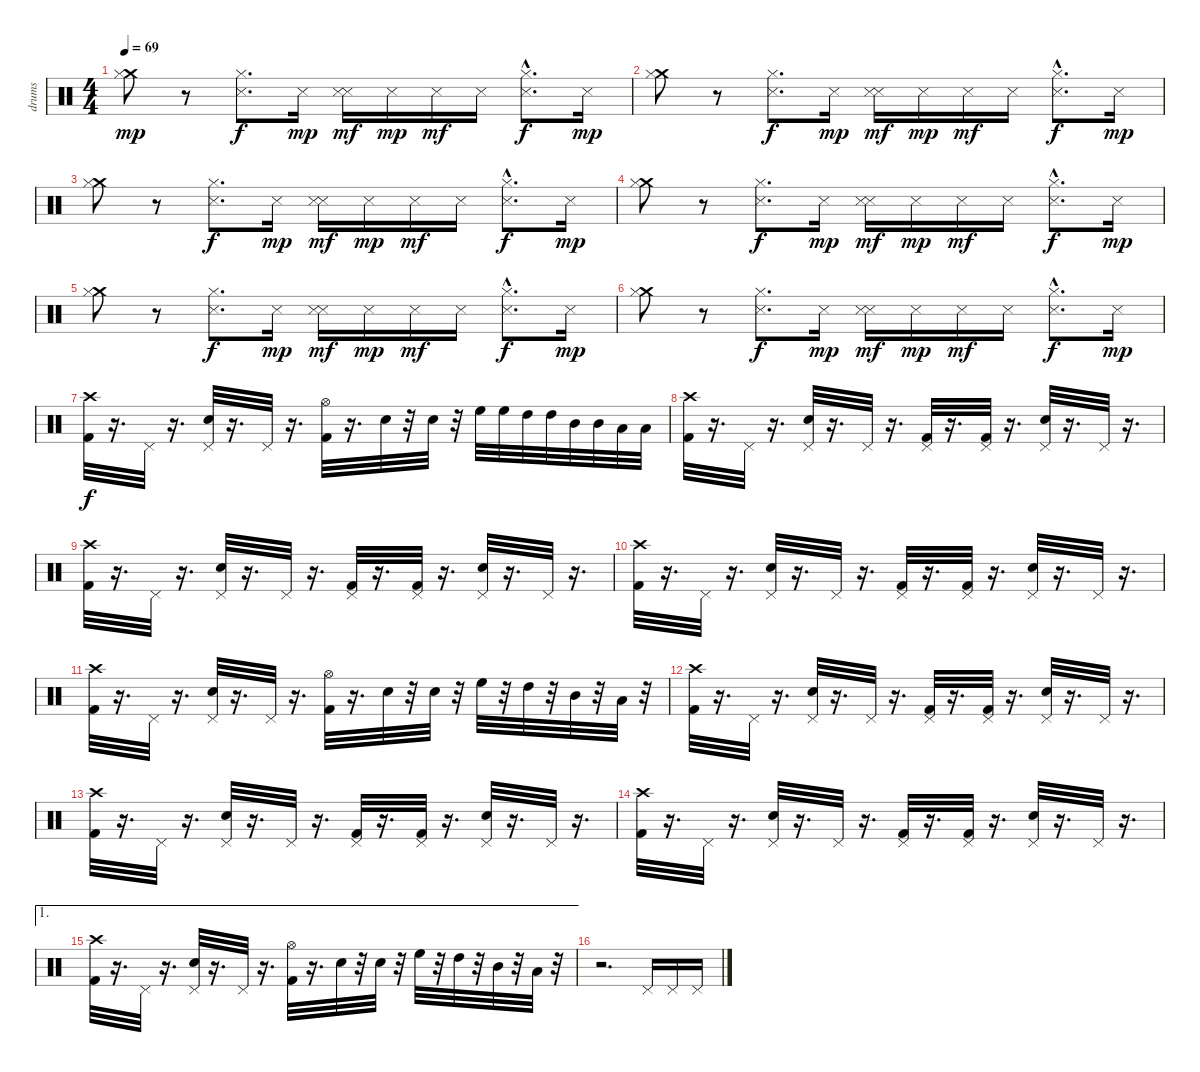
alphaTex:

\track ("drums" "drums") {instrument percussion}
\staff {score}
\articulation defaults
\ts (4 4)
\tempo 69
\clef neutral
\ks c
("Crash medium (hit)" "Hi-Hat (closed)").8{dy mp} r.8 ("Snare (side stick) 3" "Hi-Hat (closed)").8{d dy f} "Snare (side stick) 3".16{dy mp} ("Snare (side stick) 3" "Snare (side stick) 3").16{dy mf} "Snare (side stick) 3".16{dy mp} "Snare (side stick) 3".16{dy mf} "Snare (side stick) 3".16 ("Hi-Hat (closed)"{hac} "Snare (side stick) 3"{hac}).8{d dy f} "Snare (side stick) 3".16{dy mp} |
("Crash medium (hit)" "Hi-Hat (closed)").8 r.8 ("Snare (side stick) 3" "Hi-Hat (closed)").8{d dy f} "Snare (side stick) 3".16{dy mp} ("Snare (side stick) 3" "Snare (side stick) 3").16{dy mf} "Snare (side stick) 3".16{dy mp} "Snare (side stick) 3".16{dy mf} "Snare (side stick) 3".16 ("Hi-Hat (closed)"{hac} "Snare (side stick) 3"{hac}).8{d dy f} "Snare (side stick) 3".16{dy mp} |
("Crash medium (hit)" "Hi-Hat (closed)").8 r.8 ("Snare (side stick) 3" "Hi-Hat (closed)").8{d dy f} "Snare (side stick) 3".16{dy mp} ("Snare (side stick) 3" "Snare (side stick) 3").16{dy mf} "Snare (side stick) 3".16{dy mp} "Snare (side stick) 3".16{dy mf} "Snare (side stick) 3".16 ("Hi-Hat (closed)"{hac} "Snare (side stick) 3"{hac}).8{d dy f} "Snare (side stick) 3".16{dy mp} |
("Crash medium (hit)" "Hi-Hat (closed)").8 r.8 ("Snare (side stick) 3" "Hi-Hat (closed)").8{d dy f} "Snare (side stick) 3".16{dy mp} ("Snare (side stick) 3" "Snare (side stick) 3").16{dy mf} "Snare (side stick) 3".16{dy mp} "Snare (side stick) 3".16{dy mf} "Snare (side stick) 3".16 ("Hi-Hat (closed)"{hac} "Snare (side stick) 3"{hac}).8{d dy f} "Snare (side stick) 3".16{dy mp} |
("Crash medium (hit)" "Hi-Hat (closed)").8 r.8 ("Snare (side stick) 3" "Hi-Hat (closed)").8{d dy f} "Snare (side stick) 3".16{dy mp} ("Snare (side stick) 3" "Snare (side stick) 3").16{dy mf} "Snare (side stick) 3".16{dy mp} "Snare (side stick) 3".16{dy mf} "Snare (side stick) 3".16 ("Hi-Hat (closed)"{hac} "Snare (side stick) 3"{hac}).8{d dy f} "Snare (side stick) 3".16{dy mp} |
("Crash medium (hit)" "Hi-Hat (closed)").8 r.8 ("Snare (side stick) 3" "Hi-Hat (closed)").8{d dy f} "Snare (side stick) 3".16{dy mp} ("Snare (side stick) 3" "Snare (side stick) 3").16{dy mf} "Snare (side stick) 3".16{dy mp} "Snare (side stick) 3".16{dy mf} "Snare (side stick) 3".16 ("Hi-Hat (closed)"{hac} "Snare (side stick) 3"{hac}).8{d dy f} "Snare (side stick) 3".16{dy mp} |
("Crash high (hit)" "Kick (hit) 2").32{dy f} r.16{d} "Pedal Hi-Hat (hit)".32 r.16{d} ("Pedal Hi-Hat (hit)" "Snare (hit) 2").32 r.16{d} "Pedal Hi-Hat (hit)".32 r.16{d} ("Hi-Hat (open)" "Kick (hit) 2").32 r.16{d} "Snare (hit) 2".32 r.32 "Snare (hit) 2".32 r.32 "High Floor Tom (hit)".32 "High Floor Tom (hit)".32 "High Tom (hit)".32 "High Tom (hit)".32 "Mid Tom (hit)".32 "Mid Tom (hit)".32 "Low Tom (hit)".32 "Low Tom (hit)".32 |
("Crash high (hit)" "Kick (hit) 2").32 r.16{d} "Pedal Hi-Hat (hit)".32 r.16{d} ("Pedal Hi-Hat (hit)" "Snare (hit) 2").32 r.16{d} "Pedal Hi-Hat (hit)".32 r.16{d} ("Pedal Hi-Hat (hit)" "Kick (hit) 2").32 r.16{d} ("Pedal Hi-Hat (hit)" "Kick (hit) 2").32 r.16{d} ("Pedal Hi-Hat (hit)" "Snare (hit) 2").32 r.16{d} "Pedal Hi-Hat (hit)".32 r.16{d} |
("Crash high (hit)" "Kick (hit) 2").32 r.16{d} "Pedal Hi-Hat (hit)".32 r.16{d} ("Pedal Hi-Hat (hit)" "Snare (hit) 2").32 r.16{d} "Pedal Hi-Hat (hit)".32 r.16{d} ("Pedal Hi-Hat (hit)" "Kick (hit) 2").32 r.16{d} ("Pedal Hi-Hat (hit)" "Kick (hit) 2").32 r.16{d} ("Pedal Hi-Hat (hit)" "Snare (hit) 2").32 r.16{d} "Pedal Hi-Hat (hit)".32 r.16{d} |
("Crash high (hit)" "Kick (hit) 2").32 r.16{d} "Pedal Hi-Hat (hit)".32 r.16{d} ("Pedal Hi-Hat (hit)" "Snare (hit) 2").32 r.16{d} "Pedal Hi-Hat (hit)".32 r.16{d} ("Pedal Hi-Hat (hit)" "Kick (hit) 2").32 r.16{d} ("Pedal Hi-Hat (hit)" "Kick (hit) 2").32 r.16{d} ("Pedal Hi-Hat (hit)" "Snare (hit) 2").32 r.16{d} "Pedal Hi-Hat (hit)".32 r.16{d} |
("Crash high (hit)" "Kick (hit) 2").32 r.16{d} "Pedal Hi-Hat (hit)".32 r.16{d} ("Pedal Hi-Hat (hit)" "Snare (hit) 2").32 r.16{d} "Pedal Hi-Hat (hit)".32 r.16{d} ("Hi-Hat (open)" "Kick (hit) 2").32 r.16{d} "Snare (hit) 2".32 r.32 "Snare (hit) 2".32 r.32 "High Floor Tom (hit)".32 r.32 "High Tom (hit)".32 r.32 "Mid Tom (hit)".32 r.32 "Low Tom (hit)".32 r.32 |
("Crash high (hit)" "Kick (hit) 2").32 r.16{d} "Pedal Hi-Hat (hit)".32 r.16{d} ("Pedal Hi-Hat (hit)" "Snare (hit) 2").32 r.16{d} "Pedal Hi-Hat (hit)".32 r.16{d} ("Pedal Hi-Hat (hit)" "Kick (hit) 2").32 r.16{d} ("Pedal Hi-Hat (hit)" "Kick (hit) 2").32 r.16{d} ("Pedal Hi-Hat (hit)" "Snare (hit) 2").32 r.16{d} "Pedal Hi-Hat (hit)".32 r.16{d} |
("Crash high (hit)" "Kick (hit) 2").32 r.16{d} "Pedal Hi-Hat (hit)".32 r.16{d} ("Pedal Hi-Hat (hit)" "Snare (hit) 2").32 r.16{d} "Pedal Hi-Hat (hit)".32 r.16{d} ("Pedal Hi-Hat (hit)" "Kick (hit) 2").32 r.16{d} ("Pedal Hi-Hat (hit)" "Kick (hit) 2").32 r.16{d} ("Pedal Hi-Hat (hit)" "Snare (hit) 2").32 r.16{d} "Pedal Hi-Hat (hit)".32 r.16{d} |
("Crash high (hit)" "Kick (hit) 2").32 r.16{d} "Pedal Hi-Hat (hit)".32 r.16{d} ("Pedal Hi-Hat (hit)" "Snare (hit) 2").32 r.16{d} "Pedal Hi-Hat (hit)".32 r.16{d} ("Pedal Hi-Hat (hit)" "Kick (hit) 2").32 r.16{d} ("Pedal Hi-Hat (hit)" "Kick (hit) 2").32 r.16{d} ("Pedal Hi-Hat (hit)" "Snare (hit) 2").32 r.16{d} "Pedal Hi-Hat (hit)".32 r.16{d} |
\ae 1
("Crash high (hit)" "Kick (hit) 2").32 r.16{d} "Pedal Hi-Hat (hit)".32 r.16{d} ("Pedal Hi-Hat (hit)" "Snare (hit) 2").32 r.16{d} "Pedal Hi-Hat (hit)".32 r.16{d} ("Hi-Hat (open)" "Kick (hit) 2").32 r.16{d} "Snare (hit) 2".32 r.32 "Snare (hit) 2".32 r.32 "High Floor Tom (hit)".32 r.32 "High Tom (hit)".32 r.32 "Mid Tom (hit)".32 r.32 "Low Tom (hit)".32 r.32 |
r.2{d} "Pedal Hi-Hat (hit)".16 "Pedal Hi-Hat (hit)".16 "Pedal Hi-Hat (hit)".16
